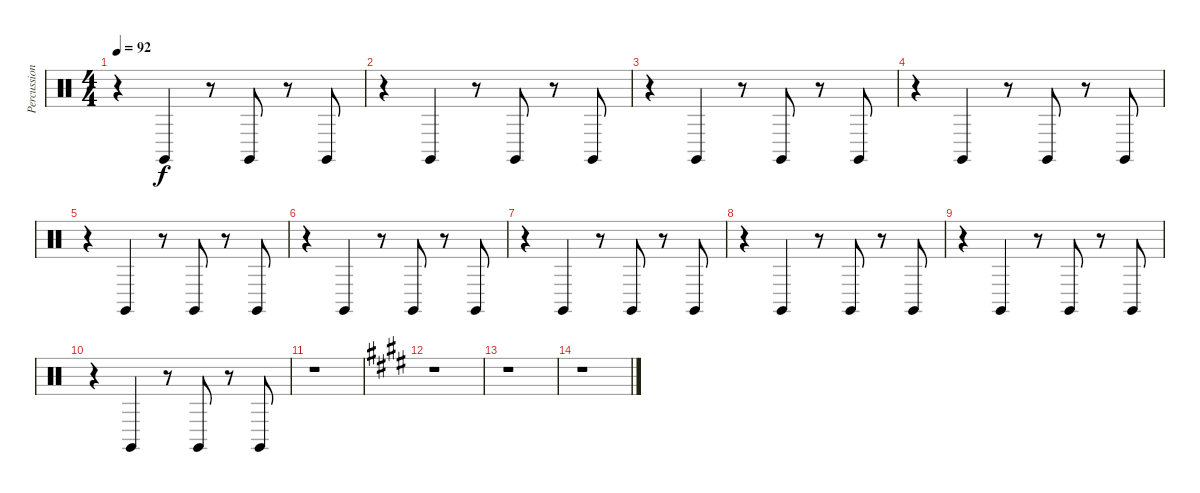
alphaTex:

\track ("Percussion" "Percussion") {instrument percussion}
\staff {score}
\articulation defaults
\ts (4 4)
\tempo 92
\clef neutral
\ks c
r.4{dy f} "Claves (hit)".4 r.8 "Claves (hit)".8 r.8 "Claves (hit)".8 |
r.4 "Claves (hit)".4 r.8 "Claves (hit)".8 r.8 "Claves (hit)".8 |
r.4 "Claves (hit)".4 r.8 "Claves (hit)".8 r.8 "Claves (hit)".8 |
r.4 "Claves (hit)".4 r.8 "Claves (hit)".8 r.8 "Claves (hit)".8 |
r.4 "Claves (hit)".4 r.8 "Claves (hit)".8 r.8 "Claves (hit)".8 |
r.4 "Claves (hit)".4 r.8 "Claves (hit)".8 r.8 "Claves (hit)".8 |
r.4 "Claves (hit)".4 r.8 "Claves (hit)".8 r.8 "Claves (hit)".8 |
r.4 "Claves (hit)".4 r.8 "Claves (hit)".8 r.8 "Claves (hit)".8 |
r.4 "Claves (hit)".4 r.8 "Claves (hit)".8 r.8 "Claves (hit)".8 |
r.4 "Claves (hit)".4 r.8 "Claves (hit)".8 r.8 "Claves (hit)".8 |
r.1 |
\ks c#minor
r.1 |
r.1 |
r.1
